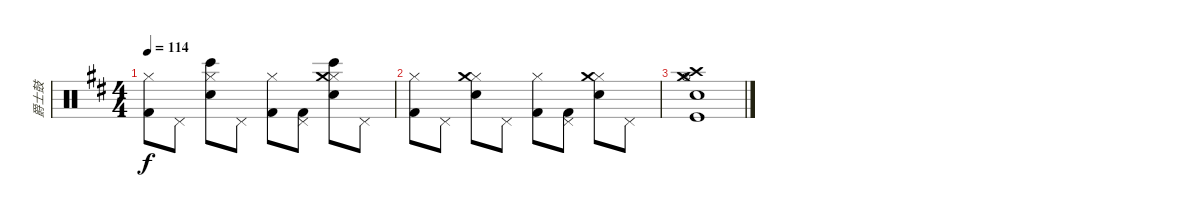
\track ("爵士鼓" "爵士鼓") {instrument percussion}
\staff {score}
\articulation defaults
\ts (4 4)
\tempo 114
\clef neutral
\ks d
("Hi-Hat (closed)" "Kick (hit) 2").8{dy f} "Pedal Hi-Hat (hit)".8 ("Hi-Hat (closed)" "Snare (hit) 2" "Bongo High (hit)").8 "Pedal Hi-Hat (hit)".8 ("Hi-Hat (closed)" "Kick (hit) 2").8 ("Pedal Hi-Hat (hit)" "Kick (hit) 2").8 ("Hi-Hat (closed)" "Snare (hit) 2" "Crash medium (hit)" "Bongo High (hit)").8 "Pedal Hi-Hat (hit)".8 |
("Hi-Hat (closed)" "Kick (hit) 2").8 "Pedal Hi-Hat (hit)".8 ("Hi-Hat (closed)" "Snare (hit) 2" "Crash medium (hit)").8 "Pedal Hi-Hat (hit)".8 ("Hi-Hat (closed)" "Kick (hit) 2").8 ("Pedal Hi-Hat (hit)" "Kick (hit) 2").8 ("Hi-Hat (closed)" "Snare (hit) 2" "Crash medium (hit)").8 "Pedal Hi-Hat (hit)".8 |
("Kick (hit)" "Hi-Hat (open)" "Snare (hit) 2" "Crash high (hit)" "Crash medium (hit)").1
